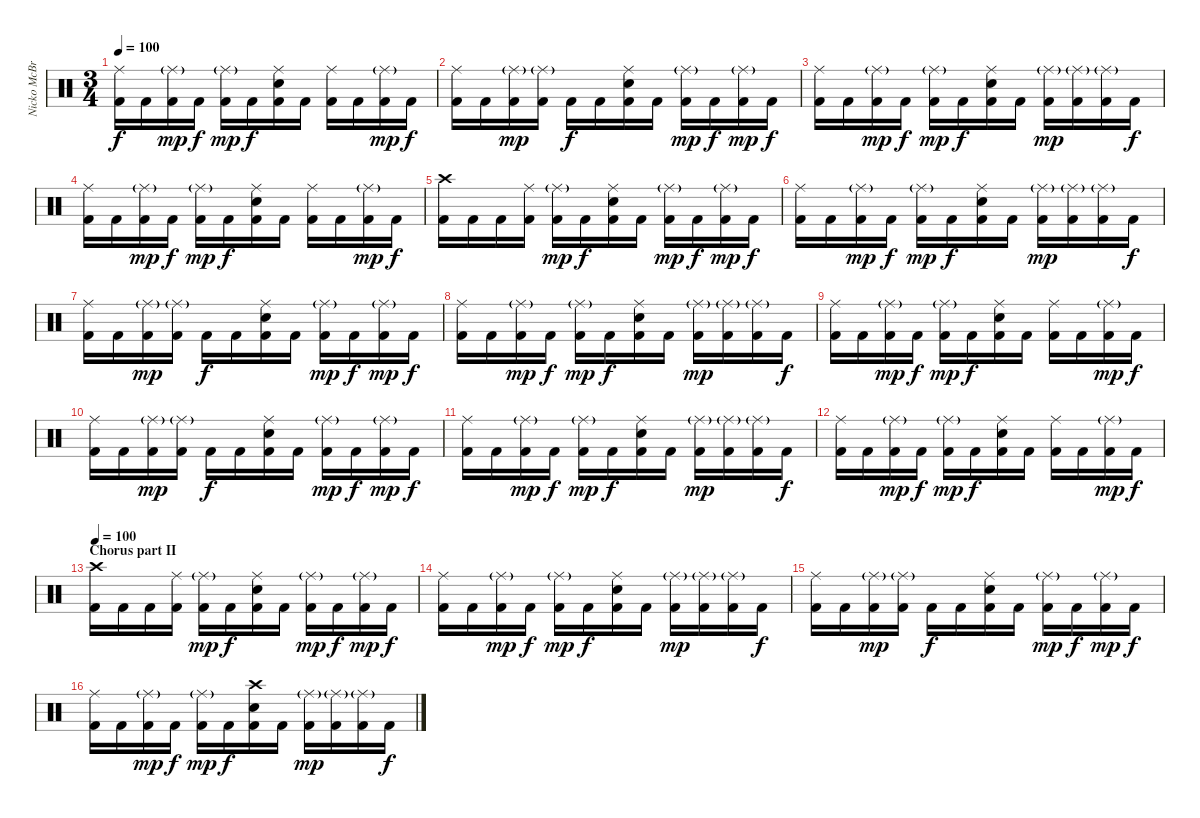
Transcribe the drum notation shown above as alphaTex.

\track ("Nicko McBrain" "Nicko McBr") {instrument percussion}
\staff {score}
\articulation defaults
\ts (3 4)
\tempo 100
\clef neutral
\ks c
("Ride (middle)" "Kick (hit) 2").16{dy f} "Kick (hit) 2".16 ("Ride (middle)"{g} "Kick (hit) 2").16{dy mp} "Kick (hit) 2".16{dy f} ("Ride (middle)"{g} "Kick (hit) 2").16{dy mp} "Kick (hit) 2".16{dy f} ("Ride (middle)" "Electric Snare (hit)" "Kick (hit) 2").16 "Kick (hit) 2".16 ("Ride (middle)" "Kick (hit) 2").16 "Kick (hit) 2".16 ("Ride (middle)"{g} "Kick (hit) 2").16{dy mp} "Kick (hit) 2".16{dy f} |
("Ride (middle)" "Kick (hit) 2").16 "Kick (hit) 2".16 ("Ride (middle)"{g} "Kick (hit) 2").16{dy mp} ("Ride (middle)"{g} "Kick (hit) 2").16 "Kick (hit) 2".16{dy f} "Kick (hit) 2".16 ("Ride (middle)" "Electric Snare (hit)" "Kick (hit) 2").16 "Kick (hit) 2".16 ("Ride (middle)"{g} "Kick (hit) 2").16{dy mp} "Kick (hit) 2".16{dy f} ("Ride (middle)"{g} "Kick (hit) 2").16{dy mp} "Kick (hit) 2".16{dy f} |
("Ride (middle)" "Kick (hit) 2").16 "Kick (hit) 2".16 ("Ride (middle)"{g} "Kick (hit) 2").16{dy mp} "Kick (hit) 2".16{dy f} ("Ride (middle)"{g} "Kick (hit) 2").16{dy mp} "Kick (hit) 2".16{dy f} ("Ride (middle)" "Electric Snare (hit)" "Kick (hit) 2").16 "Kick (hit) 2".16 ("Ride (middle)"{g} "Kick (hit) 2").16{dy mp} ("Ride (middle)"{g} "Kick (hit) 2").16 ("Ride (middle)"{g} "Kick (hit) 2").16 "Kick (hit) 2".16{dy f} |
("Ride (middle)" "Kick (hit) 2").16 "Kick (hit) 2".16 ("Ride (middle)"{g} "Kick (hit) 2").16{dy mp} "Kick (hit) 2".16{dy f} ("Ride (middle)"{g} "Kick (hit) 2").16{dy mp} "Kick (hit) 2".16{dy f} ("Ride (middle)" "Electric Snare (hit)" "Kick (hit) 2").16 "Kick (hit) 2".16 ("Ride (middle)" "Kick (hit) 2").16 "Kick (hit) 2".16 ("Ride (middle)"{g} "Kick (hit) 2").16{dy mp} "Kick (hit) 2".16{dy f} |
("Crash high (hit)" "Kick (hit) 2").16 "Kick (hit) 2".16 "Kick (hit) 2".16 ("Ride (middle)" "Kick (hit) 2").16 ("Ride (middle)"{g} "Kick (hit) 2").16{dy mp} "Kick (hit) 2".16{dy f} ("Ride (middle)" "Electric Snare (hit)" "Kick (hit) 2").16 "Kick (hit) 2".16 ("Ride (middle)"{g} "Kick (hit) 2").16{dy mp} "Kick (hit) 2".16{dy f} ("Ride (middle)"{g} "Kick (hit) 2").16{dy mp} "Kick (hit) 2".16{dy f} |
("Ride (middle)" "Kick (hit) 2").16 "Kick (hit) 2".16 ("Ride (middle)"{g} "Kick (hit) 2").16{dy mp} "Kick (hit) 2".16{dy f} ("Ride (middle)"{g} "Kick (hit) 2").16{dy mp} "Kick (hit) 2".16{dy f} ("Ride (middle)" "Electric Snare (hit)" "Kick (hit) 2").16 "Kick (hit) 2".16 ("Ride (middle)"{g} "Kick (hit) 2").16{dy mp} ("Ride (middle)"{g} "Kick (hit) 2").16 ("Ride (middle)"{g} "Kick (hit) 2").16 "Kick (hit) 2".16{dy f} |
("Ride (middle)" "Kick (hit) 2").16 "Kick (hit) 2".16 ("Ride (middle)"{g} "Kick (hit) 2").16{dy mp} ("Ride (middle)"{g} "Kick (hit) 2").16 "Kick (hit) 2".16{dy f} "Kick (hit) 2".16 ("Ride (middle)" "Electric Snare (hit)" "Kick (hit) 2").16 "Kick (hit) 2".16 ("Ride (middle)"{g} "Kick (hit) 2").16{dy mp} "Kick (hit) 2".16{dy f} ("Ride (middle)"{g} "Kick (hit) 2").16{dy mp} "Kick (hit) 2".16{dy f} |
("Ride (middle)" "Kick (hit) 2").16 "Kick (hit) 2".16 ("Ride (middle)"{g} "Kick (hit) 2").16{dy mp} "Kick (hit) 2".16{dy f} ("Ride (middle)"{g} "Kick (hit) 2").16{dy mp} "Kick (hit) 2".16{dy f} ("Ride (middle)" "Electric Snare (hit)" "Kick (hit) 2").16 "Kick (hit) 2".16 ("Ride (middle)"{g} "Kick (hit) 2").16{dy mp} ("Ride (middle)"{g} "Kick (hit) 2").16 ("Ride (middle)"{g} "Kick (hit) 2").16 "Kick (hit) 2".16{dy f} |
("Ride (middle)" "Kick (hit) 2").16 "Kick (hit) 2".16 ("Ride (middle)"{g} "Kick (hit) 2").16{dy mp} "Kick (hit) 2".16{dy f} ("Ride (middle)"{g} "Kick (hit) 2").16{dy mp} "Kick (hit) 2".16{dy f} ("Ride (middle)" "Electric Snare (hit)" "Kick (hit) 2").16 "Kick (hit) 2".16 ("Ride (middle)" "Kick (hit) 2").16 "Kick (hit) 2".16 ("Ride (middle)"{g} "Kick (hit) 2").16{dy mp} "Kick (hit) 2".16{dy f} |
("Ride (middle)" "Kick (hit) 2").16 "Kick (hit) 2".16 ("Ride (middle)"{g} "Kick (hit) 2").16{dy mp} ("Ride (middle)"{g} "Kick (hit) 2").16 "Kick (hit) 2".16{dy f} "Kick (hit) 2".16 ("Ride (middle)" "Electric Snare (hit)" "Kick (hit) 2").16 "Kick (hit) 2".16 ("Ride (middle)"{g} "Kick (hit) 2").16{dy mp} "Kick (hit) 2".16{dy f} ("Ride (middle)"{g} "Kick (hit) 2").16{dy mp} "Kick (hit) 2".16{dy f} |
("Ride (middle)" "Kick (hit) 2").16 "Kick (hit) 2".16 ("Ride (middle)"{g} "Kick (hit) 2").16{dy mp} "Kick (hit) 2".16{dy f} ("Ride (middle)"{g} "Kick (hit) 2").16{dy mp} "Kick (hit) 2".16{dy f} ("Ride (middle)" "Electric Snare (hit)" "Kick (hit) 2").16 "Kick (hit) 2".16 ("Ride (middle)"{g} "Kick (hit) 2").16{dy mp} ("Ride (middle)"{g} "Kick (hit) 2").16 ("Ride (middle)"{g} "Kick (hit) 2").16 "Kick (hit) 2".16{dy f} |
("Ride (middle)" "Kick (hit) 2").16 "Kick (hit) 2".16 ("Ride (middle)"{g} "Kick (hit) 2").16{dy mp} "Kick (hit) 2".16{dy f} ("Ride (middle)"{g} "Kick (hit) 2").16{dy mp} "Kick (hit) 2".16{dy f} ("Ride (middle)" "Electric Snare (hit)" "Kick (hit) 2").16 "Kick (hit) 2".16 ("Ride (middle)" "Kick (hit) 2").16 "Kick (hit) 2".16 ("Ride (middle)"{g} "Kick (hit) 2").16{dy mp} "Kick (hit) 2".16{dy f} |
\section ("" "Chorus part II")
\tempo 100
("Crash high (hit)" "Kick (hit) 2").16 "Kick (hit) 2".16 "Kick (hit) 2".16 ("Ride (middle)" "Kick (hit) 2").16 ("Ride (middle)"{g} "Kick (hit) 2").16{dy mp} "Kick (hit) 2".16{dy f} ("Ride (middle)" "Electric Snare (hit)" "Kick (hit) 2").16 "Kick (hit) 2".16 ("Ride (middle)"{g} "Kick (hit) 2").16{dy mp} "Kick (hit) 2".16{dy f} ("Ride (middle)"{g} "Kick (hit) 2").16{dy mp} "Kick (hit) 2".16{dy f} |
("Ride (middle)" "Kick (hit) 2").16 "Kick (hit) 2".16 ("Ride (middle)"{g} "Kick (hit) 2").16{dy mp} "Kick (hit) 2".16{dy f} ("Ride (middle)"{g} "Kick (hit) 2").16{dy mp} "Kick (hit) 2".16{dy f} ("Ride (middle)" "Electric Snare (hit)" "Kick (hit) 2").16 "Kick (hit) 2".16 ("Ride (middle)"{g} "Kick (hit) 2").16{dy mp} ("Ride (middle)"{g} "Kick (hit) 2").16 ("Ride (middle)"{g} "Kick (hit) 2").16 "Kick (hit) 2".16{dy f} |
("Ride (middle)" "Kick (hit) 2").16 "Kick (hit) 2".16 ("Ride (middle)"{g} "Kick (hit) 2").16{dy mp} ("Ride (middle)"{g} "Kick (hit) 2").16 "Kick (hit) 2".16{dy f} "Kick (hit) 2".16 ("Ride (middle)" "Electric Snare (hit)" "Kick (hit) 2").16 "Kick (hit) 2".16 ("Ride (middle)"{g} "Kick (hit) 2").16{dy mp} "Kick (hit) 2".16{dy f} ("Ride (middle)"{g} "Kick (hit) 2").16{dy mp} "Kick (hit) 2".16{dy f} |
("Ride (middle)" "Kick (hit) 2").16 "Kick (hit) 2".16 ("Ride (middle)"{g} "Kick (hit) 2").16{dy mp} "Kick (hit) 2".16{dy f} ("Ride (middle)"{g} "Kick (hit) 2").16{dy mp} "Kick (hit) 2".16{dy f} ("Crash high (hit)" "Electric Snare (hit)" "Kick (hit) 2").16 "Kick (hit) 2".16 ("Ride (middle)"{g} "Kick (hit) 2").16{dy mp} ("Ride (middle)"{g} "Kick (hit) 2").16 ("Ride (middle)"{g} "Kick (hit) 2").16 "Kick (hit) 2".16{dy f}
